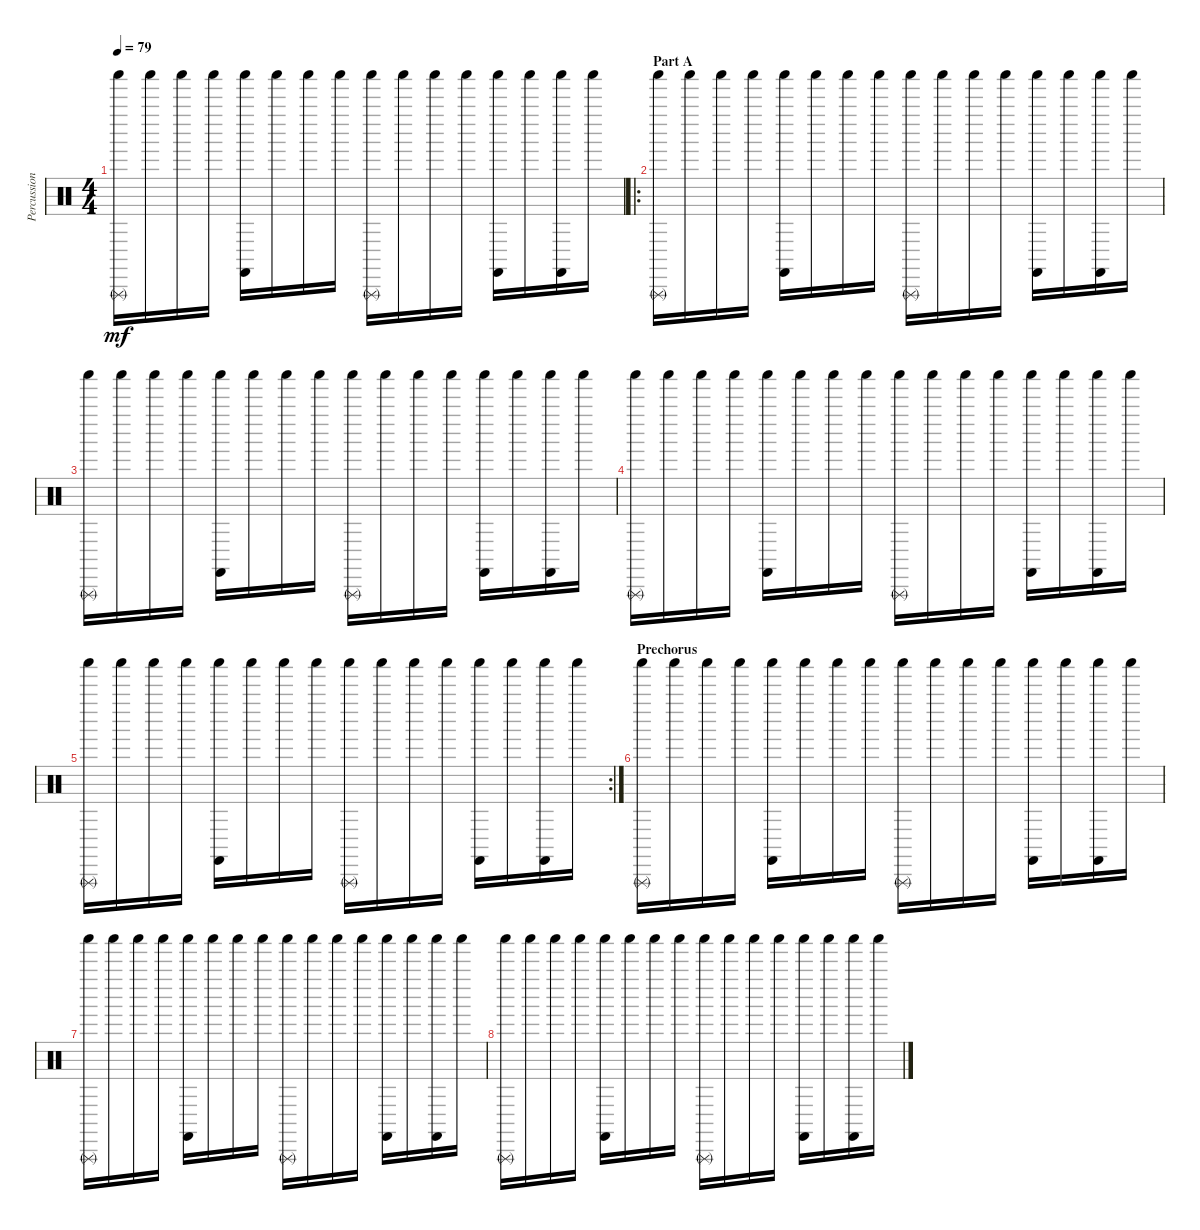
\track ("Percussion" "Percussion") {instrument percussion}
\staff {score}
\articulation defaults
\ts (4 4)
\tempo 79
\clef neutral
\ks c
("Shaker (hit)" "Triangle (rnute)").16{dy mf} "Shaker (hit)".16 "Shaker (hit)".16 "Shaker (hit)".16 ("Shaker (hit)" "Castanets (hit)").16 "Shaker (hit)".16 "Shaker (hit)".16 "Shaker (hit)".16 ("Shaker (hit)" "Triangle (rnute)").16 "Shaker (hit)".16 "Shaker (hit)".16 "Shaker (hit)".16 ("Shaker (hit)" "Castanets (hit)").16 "Shaker (hit)".16 ("Shaker (hit)" "Castanets (hit)").16 "Shaker (hit)".16 |
\ro
\section ("" "Part A")
("Shaker (hit)" "Triangle (rnute)").16 "Shaker (hit)".16 "Shaker (hit)".16 "Shaker (hit)".16 ("Shaker (hit)" "Castanets (hit)").16 "Shaker (hit)".16 "Shaker (hit)".16 "Shaker (hit)".16 ("Shaker (hit)" "Triangle (rnute)").16 "Shaker (hit)".16 "Shaker (hit)".16 "Shaker (hit)".16 ("Shaker (hit)" "Castanets (hit)").16 "Shaker (hit)".16 ("Shaker (hit)" "Castanets (hit)").16 "Shaker (hit)".16 |
("Shaker (hit)" "Triangle (rnute)").16 "Shaker (hit)".16 "Shaker (hit)".16 "Shaker (hit)".16 ("Shaker (hit)" "Castanets (hit)").16 "Shaker (hit)".16 "Shaker (hit)".16 "Shaker (hit)".16 ("Shaker (hit)" "Triangle (rnute)").16 "Shaker (hit)".16 "Shaker (hit)".16 "Shaker (hit)".16 ("Shaker (hit)" "Castanets (hit)").16 "Shaker (hit)".16 ("Shaker (hit)" "Castanets (hit)").16 "Shaker (hit)".16 |
("Shaker (hit)" "Triangle (rnute)").16 "Shaker (hit)".16 "Shaker (hit)".16 "Shaker (hit)".16 ("Shaker (hit)" "Castanets (hit)").16 "Shaker (hit)".16 "Shaker (hit)".16 "Shaker (hit)".16 ("Shaker (hit)" "Triangle (rnute)").16 "Shaker (hit)".16 "Shaker (hit)".16 "Shaker (hit)".16 ("Shaker (hit)" "Castanets (hit)").16 "Shaker (hit)".16 ("Shaker (hit)" "Castanets (hit)").16 "Shaker (hit)".16 |
\rc 2
("Shaker (hit)" "Triangle (rnute)").16 "Shaker (hit)".16 "Shaker (hit)".16 "Shaker (hit)".16 ("Shaker (hit)" "Castanets (hit)").16 "Shaker (hit)".16 "Shaker (hit)".16 "Shaker (hit)".16 ("Shaker (hit)" "Triangle (rnute)").16 "Shaker (hit)".16 "Shaker (hit)".16 "Shaker (hit)".16 ("Shaker (hit)" "Castanets (hit)").16 "Shaker (hit)".16 ("Shaker (hit)" "Castanets (hit)").16 "Shaker (hit)".16 |
\section ("" "Prechorus")
("Shaker (hit)" "Triangle (rnute)").16 "Shaker (hit)".16 "Shaker (hit)".16 "Shaker (hit)".16 ("Shaker (hit)" "Castanets (hit)").16 "Shaker (hit)".16 "Shaker (hit)".16 "Shaker (hit)".16 ("Shaker (hit)" "Triangle (rnute)").16 "Shaker (hit)".16 "Shaker (hit)".16 "Shaker (hit)".16 ("Shaker (hit)" "Castanets (hit)").16 "Shaker (hit)".16 ("Shaker (hit)" "Castanets (hit)").16 "Shaker (hit)".16 |
("Shaker (hit)" "Triangle (rnute)").16 "Shaker (hit)".16 "Shaker (hit)".16 "Shaker (hit)".16 ("Shaker (hit)" "Castanets (hit)").16 "Shaker (hit)".16 "Shaker (hit)".16 "Shaker (hit)".16 ("Shaker (hit)" "Triangle (rnute)").16 "Shaker (hit)".16 "Shaker (hit)".16 "Shaker (hit)".16 ("Shaker (hit)" "Castanets (hit)").16 "Shaker (hit)".16 ("Shaker (hit)" "Castanets (hit)").16 "Shaker (hit)".16 |
("Shaker (hit)" "Triangle (rnute)").16 "Shaker (hit)".16 "Shaker (hit)".16 "Shaker (hit)".16 ("Shaker (hit)" "Castanets (hit)").16 "Shaker (hit)".16 "Shaker (hit)".16 "Shaker (hit)".16 ("Shaker (hit)" "Triangle (rnute)").16 "Shaker (hit)".16 "Shaker (hit)".16 "Shaker (hit)".16 ("Shaker (hit)" "Castanets (hit)").16 "Shaker (hit)".16 ("Shaker (hit)" "Castanets (hit)").16 "Shaker (hit)".16
